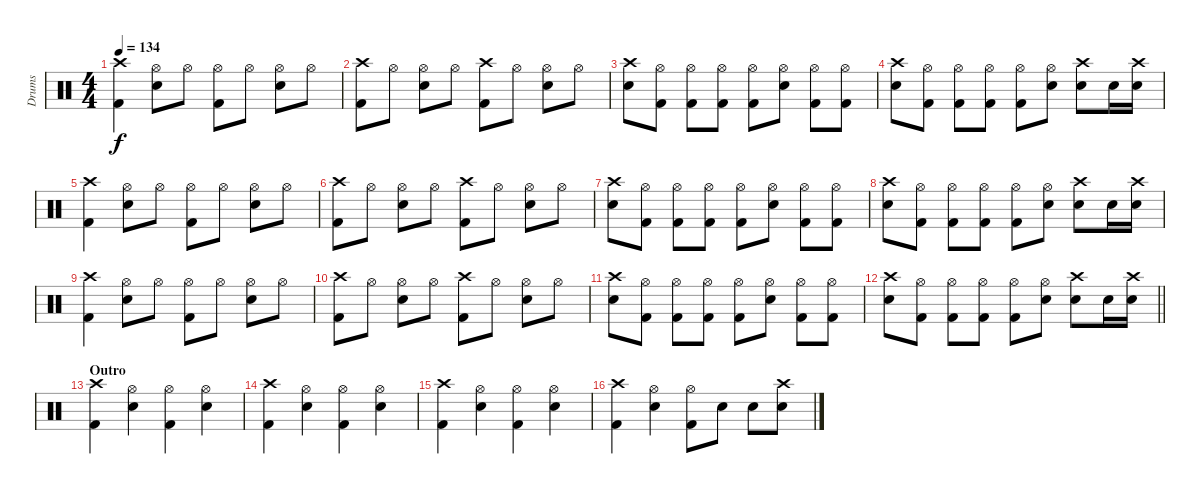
\track ("Drums" "Drums") {instrument percussion}
\staff {score}
\articulation defaults
\ts (4 4)
\tempo 134
\clef neutral
\ks c
("Crash high (hit)" "Kick (hit) 2").4{dy f} ("Hi-Hat (open)" "Snare (hit) 2").8 "Hi-Hat (open)".8 ("Hi-Hat (open)" "Kick (hit) 2").8 "Hi-Hat (open)".8 ("Hi-Hat (open)" "Snare (hit) 2").8 "Hi-Hat (open)".8 |
("Crash high (hit)" "Kick (hit) 2").8 "Hi-Hat (open)".8 ("Hi-Hat (open)" "Snare (hit) 2").8 "Hi-Hat (open)".8 ("Crash high (hit)" "Kick (hit) 2").8 "Hi-Hat (open)".8 ("Hi-Hat (open)" "Snare (hit) 2").8 "Hi-Hat (open)".8 |
("Crash high (hit)" "Snare (hit) 2").8 ("Hi-Hat (open)" "Kick (hit) 2").8 ("Hi-Hat (open)" "Kick (hit) 2").8 ("Hi-Hat (open)" "Kick (hit) 2").8 ("Hi-Hat (open)" "Kick (hit) 2").8 ("Hi-Hat (open)" "Snare (hit) 2").8 ("Hi-Hat (open)" "Kick (hit) 2").8 ("Hi-Hat (open)" "Kick (hit) 2").8 |
("Crash high (hit)" "Snare (hit) 2").8 ("Hi-Hat (open)" "Kick (hit) 2").8 ("Hi-Hat (open)" "Kick (hit) 2").8 ("Hi-Hat (open)" "Kick (hit) 2").8 ("Hi-Hat (open)" "Kick (hit) 2").8 ("Hi-Hat (open)" "Snare (hit) 2").8 ("Crash high (hit)" "Snare (hit) 2").8 "Snare (hit) 2".16 ("Crash high (hit)" "Snare (hit) 2").16 |
("Crash high (hit)" "Kick (hit) 2").4 ("Hi-Hat (open)" "Snare (hit) 2").8 "Hi-Hat (open)".8 ("Hi-Hat (open)" "Kick (hit) 2").8 "Hi-Hat (open)".8 ("Hi-Hat (open)" "Snare (hit) 2").8 "Hi-Hat (open)".8 |
("Crash high (hit)" "Kick (hit) 2").8 "Hi-Hat (open)".8 ("Hi-Hat (open)" "Snare (hit) 2").8 "Hi-Hat (open)".8 ("Crash high (hit)" "Kick (hit) 2").8 "Hi-Hat (open)".8 ("Hi-Hat (open)" "Snare (hit) 2").8 "Hi-Hat (open)".8 |
("Crash high (hit)" "Snare (hit) 2").8 ("Hi-Hat (open)" "Kick (hit) 2").8 ("Hi-Hat (open)" "Kick (hit) 2").8 ("Hi-Hat (open)" "Kick (hit) 2").8 ("Hi-Hat (open)" "Kick (hit) 2").8 ("Hi-Hat (open)" "Snare (hit) 2").8 ("Hi-Hat (open)" "Kick (hit) 2").8 ("Hi-Hat (open)" "Kick (hit) 2").8 |
("Crash high (hit)" "Snare (hit) 2").8 ("Hi-Hat (open)" "Kick (hit) 2").8 ("Hi-Hat (open)" "Kick (hit) 2").8 ("Hi-Hat (open)" "Kick (hit) 2").8 ("Hi-Hat (open)" "Kick (hit) 2").8 ("Hi-Hat (open)" "Snare (hit) 2").8 ("Crash high (hit)" "Snare (hit) 2").8 "Snare (hit) 2".16 ("Crash high (hit)" "Snare (hit) 2").16 |
("Crash high (hit)" "Kick (hit) 2").4 ("Hi-Hat (open)" "Snare (hit) 2").8 "Hi-Hat (open)".8 ("Hi-Hat (open)" "Kick (hit) 2").8 "Hi-Hat (open)".8 ("Hi-Hat (open)" "Snare (hit) 2").8 "Hi-Hat (open)".8 |
("Crash high (hit)" "Kick (hit) 2").8 "Hi-Hat (open)".8 ("Hi-Hat (open)" "Snare (hit) 2").8 "Hi-Hat (open)".8 ("Crash high (hit)" "Kick (hit) 2").8 "Hi-Hat (open)".8 ("Hi-Hat (open)" "Snare (hit) 2").8 "Hi-Hat (open)".8 |
("Crash high (hit)" "Snare (hit) 2").8 ("Hi-Hat (open)" "Kick (hit) 2").8 ("Hi-Hat (open)" "Kick (hit) 2").8 ("Hi-Hat (open)" "Kick (hit) 2").8 ("Hi-Hat (open)" "Kick (hit) 2").8 ("Hi-Hat (open)" "Snare (hit) 2").8 ("Hi-Hat (open)" "Kick (hit) 2").8 ("Hi-Hat (open)" "Kick (hit) 2").8 |
\barLineRight lightlight
("Crash high (hit)" "Snare (hit) 2").8 ("Hi-Hat (open)" "Kick (hit) 2").8 ("Hi-Hat (open)" "Kick (hit) 2").8 ("Hi-Hat (open)" "Kick (hit) 2").8 ("Hi-Hat (open)" "Kick (hit) 2").8 ("Hi-Hat (open)" "Snare (hit) 2").8 ("Crash high (hit)" "Snare (hit) 2").8 "Snare (hit) 2".16 ("Crash high (hit)" "Snare (hit) 2").16 |
\section ("" "Outro")
("Crash high (hit)" "Kick (hit) 2").4 ("Hi-Hat (open)" "Snare (hit) 2").4 ("Hi-Hat (open)" "Kick (hit) 2").4 ("Hi-Hat (open)" "Snare (hit) 2").4 |
("Crash high (hit)" "Kick (hit) 2").4 ("Hi-Hat (open)" "Snare (hit) 2").4 ("Hi-Hat (open)" "Kick (hit) 2").4 ("Hi-Hat (open)" "Snare (hit) 2").4 |
("Crash high (hit)" "Kick (hit) 2").4 ("Hi-Hat (open)" "Snare (hit) 2").4 ("Hi-Hat (open)" "Kick (hit) 2").4 ("Hi-Hat (open)" "Snare (hit) 2").4 |
("Crash high (hit)" "Kick (hit) 2").4 ("Hi-Hat (open)" "Snare (hit) 2").4 ("Hi-Hat (open)" "Kick (hit) 2").8 "Snare (hit) 2".8 "Snare (hit) 2".8 ("Crash high (hit)" "Snare (hit) 2").8
